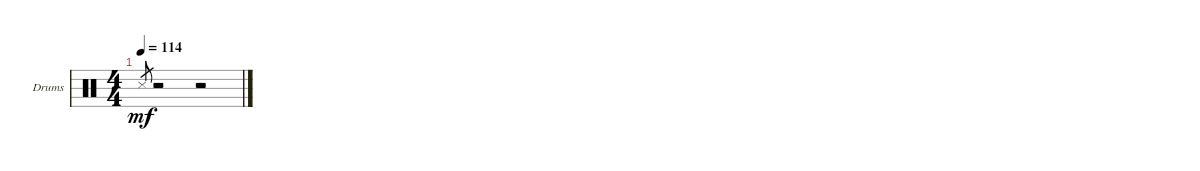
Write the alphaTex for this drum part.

\defaultSystemsLayout 4
\bracketExtendMode groupsimilarinstruments
\firstSystemTrackNameOrientation horizontal
\otherSystemsTrackNameOrientation horizontal
\track ("Drumkit" "Drums") {instrument percussion}
\staff {score}
\articulation defaults
\ts (4 4)
\tempo 114
\clef neutral
\scale
0.474178
\ks c "Snare (side stick) 3".8{gr dy mf}
r.2 r.2 |
\scale
0.262911 |
\scale
0.262911 |
\scale
0.333333 |
\scale
0.333333 |
\scale
0.333333 |
\scale
0.333333 |
\scale
0.333333 |
\scale
0.333333 |
\scale
0.333333 |
\scale
0.333333 |
\scale
0.333333 |
\scale
0.333333 |
\scale
0.333333 |
\scale
0.333333 |
\scale
0.333333
